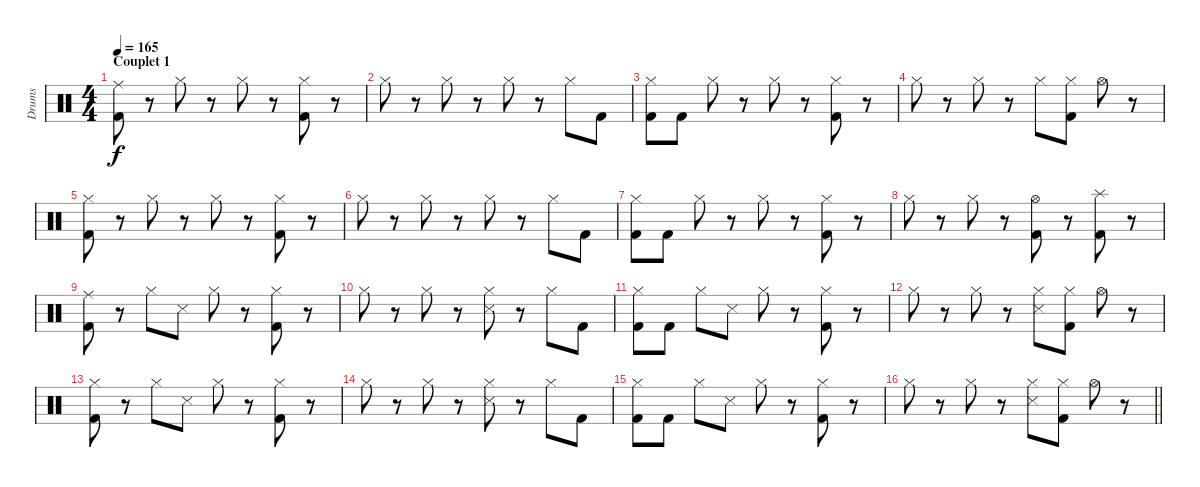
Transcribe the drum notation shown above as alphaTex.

\track ("Drums" "Drums") {instrument percussion}
\staff {score}
\articulation defaults
\ts (4 4)
\section ("" "Couplet 1")
\tempo 165
\clef neutral
\ks c
("Ride (middle)" "Kick (hit) 2").8{dy f} r.8 "Hi-Hat (closed)".8 r.8 "Hi-Hat (closed)".8 r.8 ("Hi-Hat (closed)" "Kick (hit) 2").8 r.8 |
"Hi-Hat (closed)".8 r.8 "Hi-Hat (closed)".8 r.8 "Hi-Hat (closed)".8 r.8 "Hi-Hat (closed)".8 "Kick (hit) 2".8 |
("Hi-Hat (closed)" "Kick (hit) 2").8 "Kick (hit) 2".8 "Hi-Hat (closed)".8 r.8 "Hi-Hat (closed)".8 r.8 ("Hi-Hat (closed)" "Kick (hit) 2").8 r.8 |
"Hi-Hat (closed)".8 r.8 "Hi-Hat (closed)".8 r.8 "Hi-Hat (closed)".8 ("Hi-Hat (closed)" "Kick (hit) 2").8 "Hi-Hat (open)".8 r.8 |
("Hi-Hat (closed)" "Kick (hit) 2").8 r.8 "Hi-Hat (closed)".8 r.8 "Hi-Hat (closed)".8 r.8 ("Hi-Hat (closed)" "Kick (hit) 2").8 r.8 |
"Hi-Hat (closed)".8 r.8 "Hi-Hat (closed)".8 r.8 "Hi-Hat (closed)".8 r.8 "Hi-Hat (closed)".8 "Kick (hit) 2".8 |
("Hi-Hat (closed)" "Kick (hit) 2").8 "Kick (hit) 2".8 "Hi-Hat (closed)".8 r.8 "Hi-Hat (closed)".8 r.8 ("Hi-Hat (closed)" "Kick (hit) 2").8 r.8 |
"Hi-Hat (closed)".8 r.8 "Hi-Hat (closed)".8 r.8 ("Hi-Hat (open)" "Kick (hit) 2").8 r.8 ("Splash (hit)" "Kick (hit) 2").8 r.8 |
("Ride (middle)" "Kick (hit) 2").8 r.8 "Hi-Hat (closed)".8 "Snare (side stick) 3".8 "Hi-Hat (closed)".8 r.8 ("Hi-Hat (closed)" "Kick (hit) 2").8 r.8 |
"Hi-Hat (closed)".8 r.8 "Hi-Hat (closed)".8 r.8 ("Hi-Hat (closed)" "Snare (side stick) 3").8 r.8 "Hi-Hat (closed)".8 "Kick (hit) 2".8 |
("Hi-Hat (closed)" "Kick (hit) 2").8 "Kick (hit) 2".8 "Hi-Hat (closed)".8 "Snare (side stick) 3".8 "Hi-Hat (closed)".8 r.8 ("Hi-Hat (closed)" "Kick (hit) 2").8 r.8 |
"Hi-Hat (closed)".8 r.8 "Hi-Hat (closed)".8 r.8 ("Hi-Hat (closed)" "Snare (side stick) 3").8 ("Hi-Hat (closed)" "Kick (hit) 2").8 "Hi-Hat (open)".8 r.8 |
("Hi-Hat (closed)" "Kick (hit) 2").8 r.8 "Hi-Hat (closed)".8 "Snare (side stick) 3".8 "Hi-Hat (closed)".8 r.8 ("Hi-Hat (closed)" "Kick (hit) 2").8 r.8 |
"Hi-Hat (closed)".8 r.8 "Hi-Hat (closed)".8 r.8 ("Hi-Hat (closed)" "Snare (side stick) 3").8 r.8 "Hi-Hat (closed)".8 "Kick (hit) 2".8 |
("Hi-Hat (closed)" "Kick (hit) 2").8 "Kick (hit) 2".8 "Hi-Hat (closed)".8 "Snare (side stick) 3".8 "Hi-Hat (closed)".8 r.8 ("Hi-Hat (closed)" "Kick (hit) 2").8 r.8 |
\barLineRight lightlight "Hi-Hat (closed)".8
r.8 "Hi-Hat (closed)".8 r.8 ("Hi-Hat (closed)" "Snare (side stick) 3").8 ("Hi-Hat (closed)" "Kick (hit) 2").8 "Hi-Hat (open)".8 r.8
